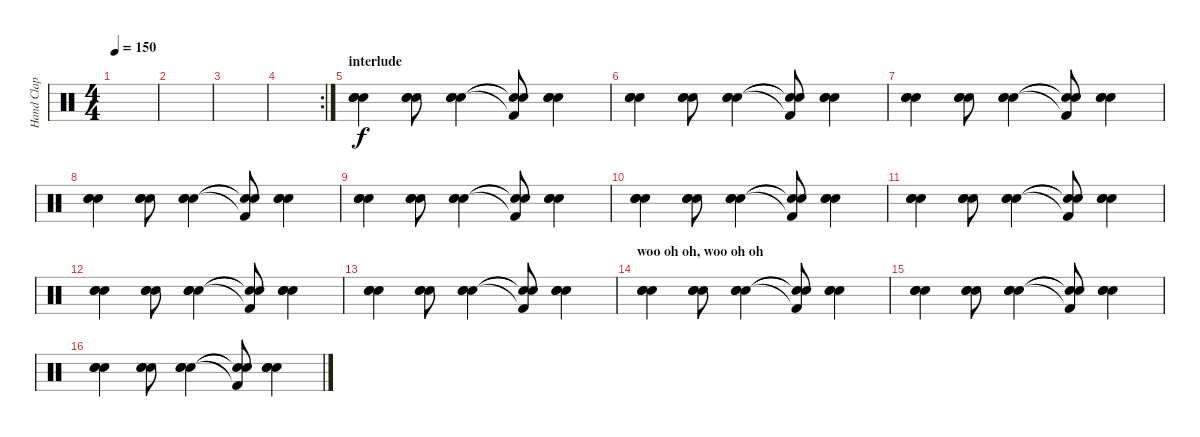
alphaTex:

\track ("Hand Clap" "Hand Clap") {instrument percussion}
\staff {score}
\articulation defaults
\ts (4 4)
\tempo 150
\clef neutral
\ks c
|
|
|
\rc 2
|
\section ("" "interlude")
("Hand Clap (hit)" "Hand Clap (hit)" "Hand Clap (hit)").4 ("Hand Clap (hit)" "Hand Clap (hit)" "Hand Clap (hit)").8 ("Hand Clap (hit)" "Hand Clap (hit)" "Hand Clap (hit)").4 ("Snare (hit)"{t} "Snare (hit)"{t} "Kick (hit) 2"{t}).8 ("Hand Clap (hit)" "Hand Clap (hit)" "Hand Clap (hit)").4 |
("Hand Clap (hit)" "Hand Clap (hit)" "Hand Clap (hit)").4 ("Hand Clap (hit)" "Hand Clap (hit)" "Hand Clap (hit)").8 ("Hand Clap (hit)" "Hand Clap (hit)" "Hand Clap (hit)").4 ("Snare (hit)"{t} "Snare (hit)"{t} "Kick (hit) 2"{t}).8 ("Hand Clap (hit)" "Hand Clap (hit)" "Hand Clap (hit)").4 |
("Hand Clap (hit)" "Hand Clap (hit)" "Hand Clap (hit)").4 ("Hand Clap (hit)" "Hand Clap (hit)" "Hand Clap (hit)").8 ("Hand Clap (hit)" "Hand Clap (hit)" "Hand Clap (hit)").4 ("Snare (hit)"{t} "Snare (hit)"{t} "Kick (hit) 2"{t}).8 ("Hand Clap (hit)" "Hand Clap (hit)" "Hand Clap (hit)").4 |
("Hand Clap (hit)" "Hand Clap (hit)" "Hand Clap (hit)").4 ("Hand Clap (hit)" "Hand Clap (hit)" "Hand Clap (hit)").8 ("Hand Clap (hit)" "Hand Clap (hit)" "Hand Clap (hit)").4 ("Snare (hit)"{t} "Snare (hit)"{t} "Kick (hit) 2"{t}).8 ("Hand Clap (hit)" "Hand Clap (hit)" "Hand Clap (hit)").4 |
("Hand Clap (hit)" "Hand Clap (hit)" "Hand Clap (hit)").4 ("Hand Clap (hit)" "Hand Clap (hit)" "Hand Clap (hit)").8 ("Hand Clap (hit)" "Hand Clap (hit)" "Hand Clap (hit)").4 ("Snare (hit)"{t} "Snare (hit)"{t} "Kick (hit) 2"{t}).8 ("Hand Clap (hit)" "Hand Clap (hit)" "Hand Clap (hit)").4 |
("Hand Clap (hit)" "Hand Clap (hit)" "Hand Clap (hit)").4 ("Hand Clap (hit)" "Hand Clap (hit)" "Hand Clap (hit)").8 ("Hand Clap (hit)" "Hand Clap (hit)" "Hand Clap (hit)").4 ("Snare (hit)"{t} "Snare (hit)"{t} "Kick (hit) 2"{t}).8 ("Hand Clap (hit)" "Hand Clap (hit)" "Hand Clap (hit)").4 |
("Hand Clap (hit)" "Hand Clap (hit)" "Hand Clap (hit)").4 ("Hand Clap (hit)" "Hand Clap (hit)" "Hand Clap (hit)").8 ("Hand Clap (hit)" "Hand Clap (hit)" "Hand Clap (hit)").4 ("Snare (hit)"{t} "Snare (hit)"{t} "Kick (hit) 2"{t}).8 ("Hand Clap (hit)" "Hand Clap (hit)" "Hand Clap (hit)").4 |
("Hand Clap (hit)" "Hand Clap (hit)" "Hand Clap (hit)").4 ("Hand Clap (hit)" "Hand Clap (hit)" "Hand Clap (hit)").8 ("Hand Clap (hit)" "Hand Clap (hit)" "Hand Clap (hit)").4 ("Snare (hit)"{t} "Snare (hit)"{t} "Kick (hit) 2"{t}).8 ("Hand Clap (hit)" "Hand Clap (hit)" "Hand Clap (hit)").4 |
("Hand Clap (hit)" "Hand Clap (hit)" "Hand Clap (hit)").4 ("Hand Clap (hit)" "Hand Clap (hit)" "Hand Clap (hit)").8 ("Hand Clap (hit)" "Hand Clap (hit)" "Hand Clap (hit)").4 ("Snare (hit)"{t} "Snare (hit)"{t} "Kick (hit) 2"{t}).8 ("Hand Clap (hit)" "Hand Clap (hit)" "Hand Clap (hit)").4 |
\section ("" "woo oh oh, woo oh oh ")
("Hand Clap (hit)" "Hand Clap (hit)" "Hand Clap (hit)").4 ("Hand Clap (hit)" "Hand Clap (hit)" "Hand Clap (hit)").8 ("Hand Clap (hit)" "Hand Clap (hit)" "Hand Clap (hit)").4 ("Snare (hit)"{t} "Snare (hit)"{t} "Kick (hit) 2"{t}).8 ("Hand Clap (hit)" "Hand Clap (hit)" "Hand Clap (hit)").4 |
("Hand Clap (hit)" "Hand Clap (hit)" "Hand Clap (hit)").4 ("Hand Clap (hit)" "Hand Clap (hit)" "Hand Clap (hit)").8 ("Hand Clap (hit)" "Hand Clap (hit)" "Hand Clap (hit)").4 ("Snare (hit)"{t} "Snare (hit)"{t} "Kick (hit) 2"{t}).8 ("Hand Clap (hit)" "Hand Clap (hit)" "Hand Clap (hit)").4 |
("Hand Clap (hit)" "Hand Clap (hit)" "Hand Clap (hit)").4 ("Hand Clap (hit)" "Hand Clap (hit)" "Hand Clap (hit)").8 ("Hand Clap (hit)" "Hand Clap (hit)" "Hand Clap (hit)").4 ("Snare (hit)"{t} "Snare (hit)"{t} "Kick (hit) 2"{t}).8 ("Hand Clap (hit)" "Hand Clap (hit)" "Hand Clap (hit)").4
